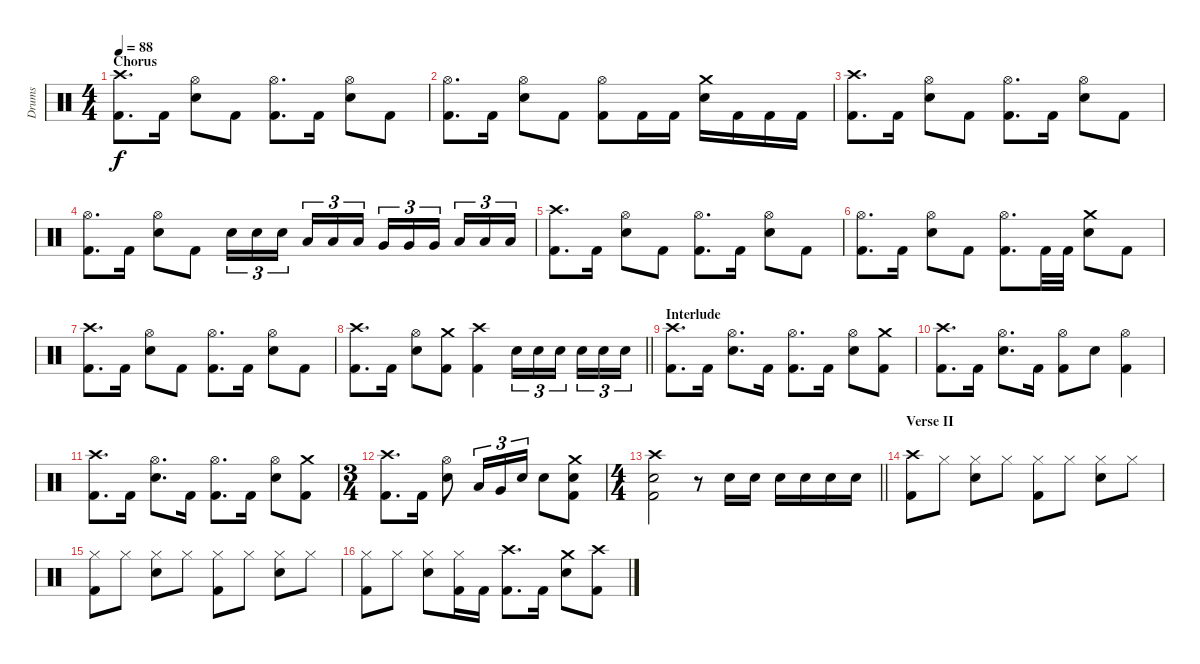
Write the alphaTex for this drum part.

\track ("Drums" "Drums") {instrument percussion}
\staff {score}
\articulation defaults
\ts (4 4)
\section ("" "Chorus")
\tempo 88
\clef neutral
\ks c
("Crash high (hit)" "Kick (hit) 2").8{d dy f} "Kick (hit) 2".16 ("Hi-Hat (open)" "Snare (hit) 2").8 "Kick (hit) 2".8 ("Hi-Hat (open)" "Kick (hit) 2").8{d} "Kick (hit) 2".16 ("Hi-Hat (open)" "Snare (hit) 2").8 "Kick (hit) 2".8 |
("Hi-Hat (open)" "Kick (hit) 2").8{d} "Kick (hit) 2".16 ("Hi-Hat (open)" "Snare (hit) 2").8 "Kick (hit) 2".8 ("Hi-Hat (open)" "Kick (hit) 2").8 "Kick (hit) 2".16 "Kick (hit) 2".16 ("Crash medium (hit)" "Snare (hit) 2").16 "Kick (hit) 2".16 "Kick (hit) 2".16 "Kick (hit) 2".16 |
("Crash high (hit)" "Kick (hit) 2").8{d} "Kick (hit) 2".16 ("Hi-Hat (open)" "Snare (hit) 2").8 "Kick (hit) 2".8 ("Hi-Hat (open)" "Kick (hit) 2").8{d} "Kick (hit) 2".16 ("Hi-Hat (open)" "Snare (hit) 2").8 "Kick (hit) 2".8 |
("Hi-Hat (open)" "Kick (hit) 2").8{d} "Kick (hit) 2".16 ("Hi-Hat (open)" "Snare (hit) 2").8 "Kick (hit) 2".8 "Snare (hit) 2".16{tu (3 2)} "Snare (hit) 2".16{tu (3 2)} "Snare (hit) 2".16{tu (3 2) beam splitsecondary} "Low Tom (hit)".16{tu (3 2)} "Low Tom (hit)".16{tu (3 2)} "Low Tom (hit)".16{tu (3 2)} "Very Low Tom (hit)".16{tu (3 2)} "Very Low Tom (hit)".16{tu (3 2)} "Very Low Tom (hit)".16{tu (3 2) beam splitsecondary} "Low Floor Tom (hit)".16{tu (3 2)} "Low Floor Tom (hit)".16{tu (3 2)} "Low Floor Tom (hit)".16{tu (3 2)} |
("Crash high (hit)" "Kick (hit) 2").8{d} "Kick (hit) 2".16 ("Hi-Hat (open)" "Snare (hit) 2").8 "Kick (hit) 2".8 ("Hi-Hat (open)" "Kick (hit) 2").8{d} "Kick (hit) 2".16 ("Hi-Hat (open)" "Snare (hit) 2").8 "Kick (hit) 2".8 |
("Hi-Hat (open)" "Kick (hit) 2").8{d} "Kick (hit) 2".16 ("Hi-Hat (open)" "Snare (hit) 2").8 "Kick (hit) 2".8 ("Hi-Hat (open)" "Kick (hit) 2").8{d} "Kick (hit) 2".32 "Kick (hit) 2".32 ("Crash medium (hit)" "Snare (hit) 2").8 "Kick (hit) 2".8 |
("Crash high (hit)" "Kick (hit) 2").8{d} "Kick (hit) 2".16 ("Hi-Hat (open)" "Snare (hit) 2").8 "Kick (hit) 2".8 ("Hi-Hat (open)" "Kick (hit) 2").8{d} "Kick (hit) 2".16 ("Hi-Hat (open)" "Snare (hit) 2").8 "Kick (hit) 2".8 |
\barLineRight lightlight
("Crash high (hit)" "Kick (hit) 2").8{d} "Kick (hit) 2".16 ("Hi-Hat (open)" "Snare (hit) 2").8 ("Crash medium (hit)" "Kick (hit) 2").8 ("Crash high (hit)" "Kick (hit) 2").4 "Snare (hit) 2".16{tu (3 2)} "Snare (hit) 2".16{tu (3 2)} "Snare (hit) 2".16{tu (3 2) beam splitsecondary} "Electric Snare (hit)".16{tu (3 2)} "Electric Snare (hit)".16{tu (3 2)} "Electric Snare (hit)".16{tu (3 2)} |
\section ("" "Interlude")
("Crash high (hit)" "Kick (hit) 2").8{d} "Kick (hit) 2".16 ("Hi-Hat (open)" "Snare (hit) 2").8{d} "Kick (hit) 2".16 ("Hi-Hat (open)" "Kick (hit) 2").8{d} "Kick (hit) 2".16 ("Hi-Hat (open)" "Snare (hit) 2").8 ("Crash medium (hit)" "Kick (hit) 2").8 |
("Crash high (hit)" "Kick (hit) 2").8{d} "Kick (hit) 2".16 ("Hi-Hat (open)" "Snare (hit) 2").8{d} "Kick (hit) 2".16 ("Hi-Hat (open)" "Kick (hit) 2").8 "Snare (hit) 2".8 ("Hi-Hat (open)" "Kick (hit) 2").4 |
("Crash high (hit)" "Kick (hit) 2").8{d} "Kick (hit) 2".16 ("Hi-Hat (open)" "Snare (hit) 2").8{d} "Kick (hit) 2".16 ("Hi-Hat (open)" "Kick (hit) 2").8{d} "Kick (hit) 2".16 ("Hi-Hat (open)" "Snare (hit) 2").8 ("Crash medium (hit)" "Kick (hit) 2").8 |
\ts (3 4)
("Crash high (hit)" "Kick (hit) 2").8{d} "Kick (hit) 2".16 ("Hi-Hat (open)" "Snare (hit) 2").8 "Low Tom (hit)".16{tu (3 2)} "Very Low Tom (hit)".16{tu (3 2)} "Snare (hit) 2".16{tu (3 2)} "Snare (hit) 2".8 ("Crash medium (hit)" "Snare (hit) 2" "Kick (hit) 2").8 |
\ts (4 4)
\barLineRight lightlight
("Crash high (hit)" "Snare (hit) 2" "Kick (hit) 2").2 r.8 "Electric Snare (hit)".16 "Electric Snare (hit)".16 "Electric Snare (hit)".16 "Electric Snare (hit)".16 "Electric Snare (hit)".16 "Electric Snare (hit)".16 |
\section ("" "Verse II")
("Crash high (hit)" "Kick (hit) 2").8 "Hi-Hat (closed)".8 ("Hi-Hat (closed)" "Snare (hit) 2").8 "Hi-Hat (closed)".8 ("Hi-Hat (closed)" "Kick (hit) 2").8 "Hi-Hat (closed)".8 ("Hi-Hat (closed)" "Snare (hit) 2").8 "Hi-Hat (closed)".8 |
("Hi-Hat (closed)" "Kick (hit) 2").8 "Hi-Hat (closed)".8 ("Hi-Hat (closed)" "Snare (hit) 2").8 "Hi-Hat (closed)".8 ("Hi-Hat (closed)" "Kick (hit) 2").8 "Hi-Hat (closed)".8 ("Hi-Hat (closed)" "Snare (hit) 2").8 "Hi-Hat (closed)".8 |
("Hi-Hat (closed)" "Kick (hit) 2").8 "Hi-Hat (closed)".8 ("Hi-Hat (closed)" "Snare (hit) 2").8 ("Hi-Hat (closed)" "Kick (hit) 2").16 "Kick (hit) 2".16 ("Crash high (hit)" "Kick (hit) 2").8{d} "Kick (hit) 2".16 ("Crash medium (hit)" "Snare (hit) 2").8 ("Crash high (hit)" "Kick (hit) 2").8
